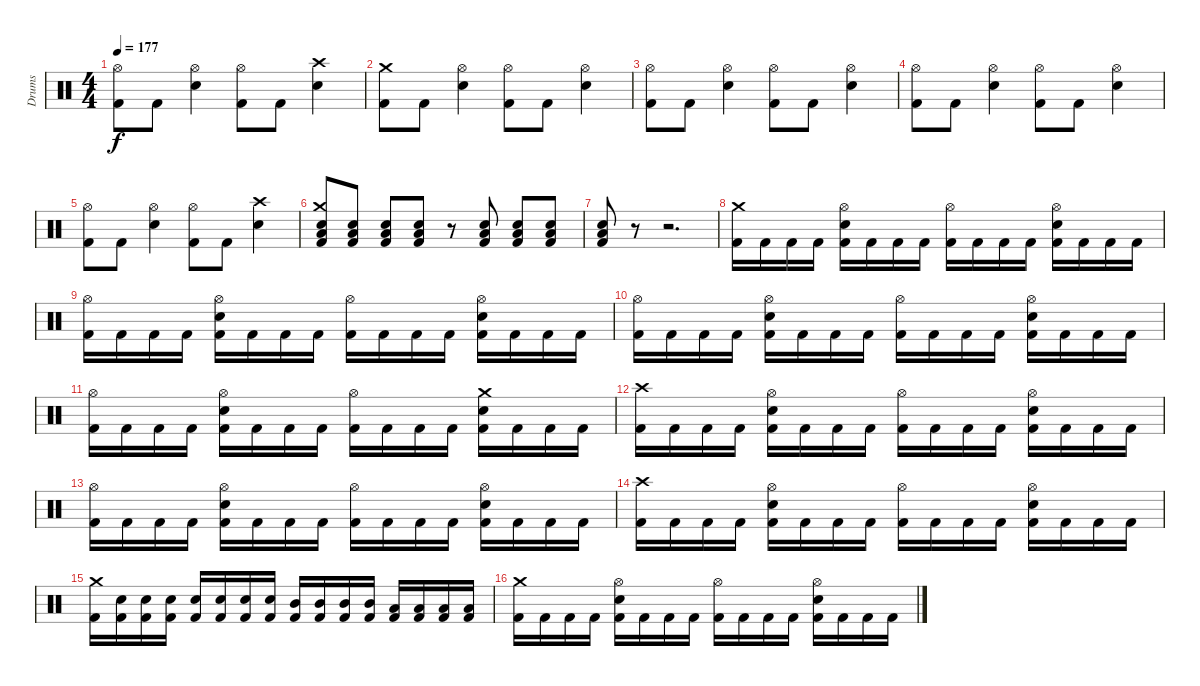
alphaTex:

\track ("Drums" "Drums") {instrument percussion}
\staff {score}
\articulation defaults
\ts (4 4)
\tempo 177
\clef neutral
\ks c
("Hi-Hat (open)" "Kick (hit) 2").8{dy f} "Kick (hit) 2".8 ("Hi-Hat (open)" "Snare (hit) 2").4 ("Hi-Hat (open)" "Kick (hit) 2").8 "Kick (hit) 2".8 ("Crash high (hit)" "Snare (hit) 2").4 |
("Crash medium (hit)" "Kick (hit) 2").8 "Kick (hit) 2".8 ("Hi-Hat (open)" "Snare (hit) 2").4 ("Hi-Hat (open)" "Kick (hit) 2").8 "Kick (hit) 2".8 ("Hi-Hat (open)" "Snare (hit) 2").4 |
("Hi-Hat (open)" "Kick (hit) 2").8 "Kick (hit) 2".8 ("Hi-Hat (open)" "Snare (hit) 2").4 ("Hi-Hat (open)" "Kick (hit) 2").8 "Kick (hit) 2".8 ("Hi-Hat (open)" "Snare (hit) 2").4 |
("Hi-Hat (open)" "Kick (hit) 2").8 "Kick (hit) 2".8 ("Hi-Hat (open)" "Snare (hit) 2").4 ("Hi-Hat (open)" "Kick (hit) 2").8 "Kick (hit) 2".8 ("Hi-Hat (open)" "Snare (hit) 2").4 |
("Hi-Hat (open)" "Kick (hit) 2").8 "Kick (hit) 2".8 ("Hi-Hat (open)" "Snare (hit) 2").4 ("Hi-Hat (open)" "Kick (hit) 2").8 "Kick (hit) 2".8 ("Crash high (hit)" "Snare (hit) 2").4 |
("Crash medium (hit)" "Low Floor Tom (hit)" "Snare (hit) 2" "Kick (hit) 2").8 ("Low Floor Tom (hit)" "Snare (hit) 2" "Kick (hit) 2").8 ("Low Floor Tom (hit)" "Snare (hit) 2" "Kick (hit) 2").8 ("Low Floor Tom (hit)" "Snare (hit) 2" "Kick (hit) 2").8 r.8 ("Low Floor Tom (hit)" "Snare (hit) 2" "Kick (hit) 2").8 ("Low Floor Tom (hit)" "Snare (hit) 2" "Kick (hit) 2").8 ("Low Floor Tom (hit)" "Snare (hit) 2" "Kick (hit) 2").8 |
("Low Floor Tom (hit)" "Snare (hit) 2" "Kick (hit) 2").8 r.8 r.2{d} |
("Crash medium (hit)" "Kick (hit) 2").16 "Kick (hit) 2".16 "Kick (hit) 2".16 "Kick (hit) 2".16 ("Hi-Hat (open)" "Snare (hit) 2" "Kick (hit) 2").16 "Kick (hit) 2".16 "Kick (hit) 2".16 "Kick (hit) 2".16 ("Hi-Hat (open)" "Kick (hit) 2").16 "Kick (hit) 2".16 "Kick (hit) 2".16 "Kick (hit) 2".16 ("Hi-Hat (open)" "Snare (hit) 2" "Kick (hit) 2").16 "Kick (hit) 2".16 "Kick (hit) 2".16 "Kick (hit) 2".16 |
("Hi-Hat (open)" "Kick (hit) 2").16 "Kick (hit) 2".16 "Kick (hit) 2".16 "Kick (hit) 2".16 ("Hi-Hat (open)" "Snare (hit) 2" "Kick (hit) 2").16 "Kick (hit) 2".16 "Kick (hit) 2".16 "Kick (hit) 2".16 ("Hi-Hat (open)" "Kick (hit) 2").16 "Kick (hit) 2".16 "Kick (hit) 2".16 "Kick (hit) 2".16 ("Hi-Hat (open)" "Snare (hit) 2" "Kick (hit) 2").16 "Kick (hit) 2".16 "Kick (hit) 2".16 "Kick (hit) 2".16 |
("Hi-Hat (open)" "Kick (hit) 2").16 "Kick (hit) 2".16 "Kick (hit) 2".16 "Kick (hit) 2".16 ("Hi-Hat (open)" "Snare (hit) 2" "Kick (hit) 2").16 "Kick (hit) 2".16 "Kick (hit) 2".16 "Kick (hit) 2".16 ("Hi-Hat (open)" "Kick (hit) 2").16 "Kick (hit) 2".16 "Kick (hit) 2".16 "Kick (hit) 2".16 ("Hi-Hat (open)" "Snare (hit) 2" "Kick (hit) 2").16 "Kick (hit) 2".16 "Kick (hit) 2".16 "Kick (hit) 2".16 |
("Hi-Hat (open)" "Kick (hit) 2").16 "Kick (hit) 2".16 "Kick (hit) 2".16 "Kick (hit) 2".16 ("Hi-Hat (open)" "Snare (hit) 2" "Kick (hit) 2").16 "Kick (hit) 2".16 "Kick (hit) 2".16 "Kick (hit) 2".16 ("Hi-Hat (open)" "Kick (hit) 2").16 "Kick (hit) 2".16 "Kick (hit) 2".16 "Kick (hit) 2".16 ("Crash medium (hit)" "Snare (hit) 2" "Kick (hit) 2").16 "Kick (hit) 2".16 "Kick (hit) 2".16 "Kick (hit) 2".16 |
("Crash high (hit)" "Kick (hit) 2").16 "Kick (hit) 2".16 "Kick (hit) 2".16 "Kick (hit) 2".16 ("Hi-Hat (open)" "Snare (hit) 2" "Kick (hit) 2").16 "Kick (hit) 2".16 "Kick (hit) 2".16 "Kick (hit) 2".16 ("Hi-Hat (open)" "Kick (hit) 2").16 "Kick (hit) 2".16 "Kick (hit) 2".16 "Kick (hit) 2".16 ("Hi-Hat (open)" "Snare (hit) 2" "Kick (hit) 2").16 "Kick (hit) 2".16 "Kick (hit) 2".16 "Kick (hit) 2".16 |
("Hi-Hat (open)" "Kick (hit) 2").16 "Kick (hit) 2".16 "Kick (hit) 2".16 "Kick (hit) 2".16 ("Hi-Hat (open)" "Snare (hit) 2" "Kick (hit) 2").16 "Kick (hit) 2".16 "Kick (hit) 2".16 "Kick (hit) 2".16 ("Hi-Hat (open)" "Kick (hit) 2").16 "Kick (hit) 2".16 "Kick (hit) 2".16 "Kick (hit) 2".16 ("Hi-Hat (open)" "Snare (hit) 2" "Kick (hit) 2").16 "Kick (hit) 2".16 "Kick (hit) 2".16 "Kick (hit) 2".16 |
("Crash high (hit)" "Kick (hit) 2").16 "Kick (hit) 2".16 "Kick (hit) 2".16 "Kick (hit) 2".16 ("Hi-Hat (open)" "Snare (hit) 2" "Kick (hit) 2").16 "Kick (hit) 2".16 "Kick (hit) 2".16 "Kick (hit) 2".16 ("Hi-Hat (open)" "Kick (hit) 2").16 "Kick (hit) 2".16 "Kick (hit) 2".16 "Kick (hit) 2".16 ("Hi-Hat (open)" "Snare (hit) 2" "Kick (hit) 2").16 "Kick (hit) 2".16 "Kick (hit) 2".16 "Kick (hit) 2".16 |
("Crash medium (hit)" "Kick (hit) 2").16 ("Snare (hit) 2" "Kick (hit) 2").16 ("Snare (hit) 2" "Kick (hit) 2").16 ("Snare (hit) 2" "Kick (hit) 2").16 ("Snare (hit) 2" "Kick (hit) 2").16 ("Snare (hit) 2" "Kick (hit) 2").16 ("Snare (hit) 2" "Kick (hit) 2").16 ("Snare (hit) 2" "Kick (hit) 2").16 ("Mid Tom (hit)" "Kick (hit) 2").16 ("Mid Tom (hit)" "Kick (hit) 2").16 ("Mid Tom (hit)" "Kick (hit) 2").16 ("Mid Tom (hit)" "Kick (hit) 2").16 ("Low Tom (hit)" "Kick (hit) 2").16 ("Low Tom (hit)" "Kick (hit) 2").16 ("Low Tom (hit)" "Kick (hit) 2").16 ("Low Tom (hit)" "Kick (hit) 2").16 |
("Crash medium (hit)" "Kick (hit) 2").16 "Kick (hit) 2".16 "Kick (hit) 2".16 "Kick (hit) 2".16 ("Hi-Hat (open)" "Snare (hit) 2" "Kick (hit) 2").16 "Kick (hit) 2".16 "Kick (hit) 2".16 "Kick (hit) 2".16 ("Hi-Hat (open)" "Kick (hit) 2").16 "Kick (hit) 2".16 "Kick (hit) 2".16 "Kick (hit) 2".16 ("Hi-Hat (open)" "Snare (hit) 2" "Kick (hit) 2").16 "Kick (hit) 2".16 "Kick (hit) 2".16 "Kick (hit) 2".16
